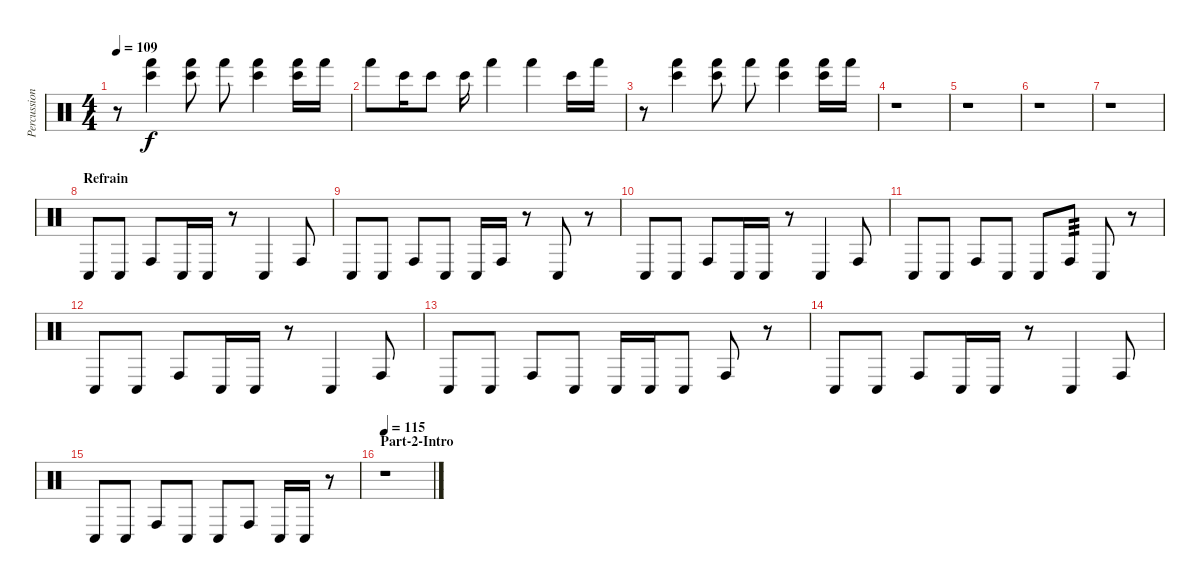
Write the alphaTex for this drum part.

\track ("Percussions" "Percussion") {instrument percussion}
\staff {score}
\articulation defaults
\ts (4 4)
\tempo 109
\clef neutral
\ks c
r.8{dy f} ("Bongo High (hit)" "Hand (hit)").4 ("Bongo High (hit)" "Hand (hit)").8 "Hand (hit)".8 ("Bongo High (hit)" "Hand (hit)").4 ("Bongo High (hit)" "Hand (hit)").16 "Hand (hit)".16 |
"Hand (hit)".8 "Bongo High (hit)".16 "Bongo High (hit)".8 "Bongo High (hit)".16 "Hand (hit)".4 "Hand (hit)".4 "Bongo High (hit)".16 "Hand (hit)".16 |
r.8 ("Bongo High (hit)" "Hand (hit)").4 ("Bongo High (hit)" "Hand (hit)").8 "Hand (hit)".8 ("Bongo High (hit)" "Hand (hit)").4 ("Bongo High (hit)" "Hand (hit)").16 "Hand (hit)".16 |
r.1 |
r.1 |
r.1 |
r.1 |
\section ("" "Refrain")
"Conga low (hit)".8 "Conga low (hit)".8 "Conga high (hit)".8 "Conga low (hit)".16 "Conga low (hit)".16 r.8 "Conga low (hit)".4 "Conga high (hit)".8 |
"Conga low (hit)".8 "Conga low (hit)".8 "Conga high (hit)".8 "Conga low (hit)".8 "Conga low (hit)".16 "Conga high (hit)".16 r.8 "Conga low (hit)".8 r.8 |
"Conga low (hit)".8 "Conga low (hit)".8 "Conga high (hit)".8 "Conga low (hit)".16 "Conga low (hit)".16 r.8 "Conga low (hit)".4 "Conga high (hit)".8 |
"Conga low (hit)".8 "Conga low (hit)".8 "Conga high (hit)".8 "Conga low (hit)".8 "Conga low (hit)".8 "Conga high (hit)".8{tp 3} "Conga low (hit)".8 r.8 |
"Conga low (hit)".8 "Conga low (hit)".8 "Conga high (hit)".8 "Conga low (hit)".16 "Conga low (hit)".16 r.8 "Conga low (hit)".4 "Conga high (hit)".8 |
"Conga low (hit)".8 "Conga low (hit)".8 "Conga high (hit)".8 "Conga low (hit)".8 "Conga low (hit)".16 "Conga low (hit)".16 "Conga low (hit)".8 "Conga high (hit)".8 r.8 |
"Conga low (hit)".8 "Conga low (hit)".8 "Conga high (hit)".8 "Conga low (hit)".16 "Conga low (hit)".16 r.8 "Conga low (hit)".4 "Conga high (hit)".8 |
"Conga low (hit)".8 "Conga low (hit)".8 "Conga high (hit)".8 "Conga low (hit)".8 "Conga low (hit)".8 "Conga high (hit)".8 "Conga low (hit)".16 "Conga low (hit)".16 r.8 |
\section ("" "Part-2-Intro")
\tempo 115
r.1
